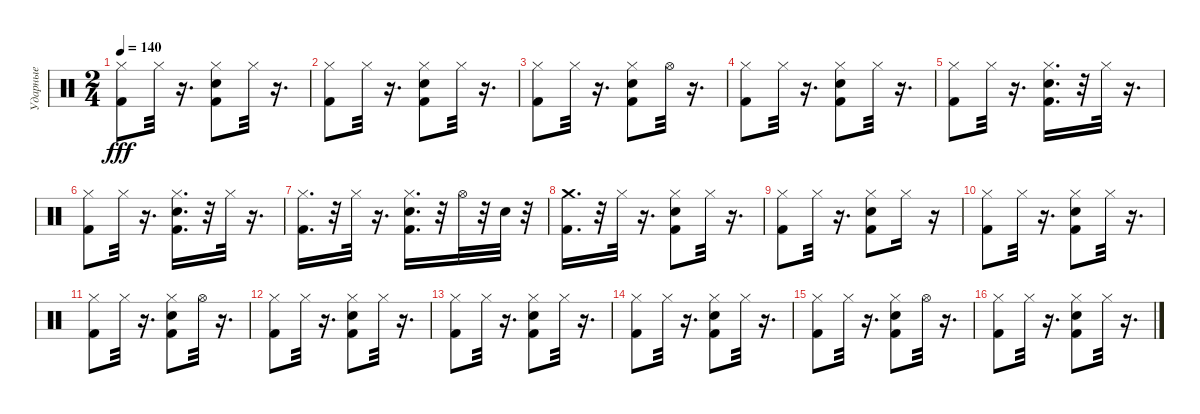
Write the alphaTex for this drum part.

\track ("Ударные" "Ударные") {instrument percussion}
\staff {score}
\articulation defaults
\ts (2 4)
\tempo 140
\clef neutral
\ks c
("Kick (hit) 2" "Hi-Hat (closed)").8{dy fff} "Hi-Hat (closed)".32 r.16{d} ("Snare (hit) 2" "Kick (hit) 2" "Hi-Hat (closed)").8 "Hi-Hat (closed)".32 r.16{d} |
("Kick (hit) 2" "Hi-Hat (closed)").8 "Hi-Hat (closed)".32 r.16{d} ("Snare (hit) 2" "Kick (hit) 2" "Hi-Hat (closed)").8 "Hi-Hat (closed)".32 r.16{d} |
("Kick (hit) 2" "Hi-Hat (closed)").8 "Hi-Hat (closed)".32 r.16{d} ("Snare (hit) 2" "Kick (hit) 2" "Hi-Hat (closed)").8 "Hi-Hat (open)".32 r.16{d} |
("Kick (hit) 2" "Hi-Hat (closed)").8 "Hi-Hat (closed)".32 r.16{d} ("Snare (hit) 2" "Kick (hit) 2" "Hi-Hat (closed)").8 "Hi-Hat (closed)".32 r.16{d} |
("Kick (hit) 2" "Hi-Hat (closed)").8 "Hi-Hat (closed)".32 r.16{d} ("Snare (hit) 2" "Kick (hit) 2" "Hi-Hat (closed)").16{d} r.32 "Hi-Hat (closed)".32 r.16{d} |
("Kick (hit) 2" "Hi-Hat (closed)").8 "Hi-Hat (closed)".32 r.16{d} ("Hi-Hat (closed)" "Snare (hit) 2" "Kick (hit) 2").16{d} r.32 "Hi-Hat (closed)".32 r.16{d} |
("Kick (hit) 2" "Hi-Hat (closed)").16{d} r.32 "Hi-Hat (closed)".32 r.16{d} ("Snare (hit) 2" "Kick (hit) 2" "Hi-Hat (closed)").16{d} r.32 "Hi-Hat (open)".32 r.32 "Snare (hit) 2".32 r.32 |
("Kick (hit) 2" "Crash medium (hit)").16{d} r.32 "Hi-Hat (closed)".32 r.16{d} ("Kick (hit) 2" "Snare (hit) 2" "Hi-Hat (closed)").8 "Hi-Hat (closed)".32 r.16{d} |
("Kick (hit) 2" "Hi-Hat (closed)").8 "Hi-Hat (closed)".32 r.16{d} ("Snare (hit) 2" "Kick (hit) 2" "Hi-Hat (closed)").8 "Hi-Hat (closed)".16 r.16 |
("Kick (hit) 2" "Hi-Hat (closed)").8 "Hi-Hat (closed)".32 r.16{d} ("Snare (hit) 2" "Kick (hit) 2" "Hi-Hat (closed)").8 "Hi-Hat (closed)".32 r.16{d} |
("Kick (hit) 2" "Hi-Hat (closed)").8 "Hi-Hat (closed)".32 r.16{d} ("Kick (hit) 2" "Snare (hit) 2" "Hi-Hat (closed)").8 "Hi-Hat (open)".32 r.16{d} |
("Kick (hit) 2" "Hi-Hat (closed)").8 "Hi-Hat (closed)".32 r.16{d} ("Snare (hit) 2" "Kick (hit) 2" "Hi-Hat (closed)").8 "Hi-Hat (closed)".32 r.16{d} |
("Kick (hit) 2" "Hi-Hat (closed)").8 "Hi-Hat (closed)".32 r.16{d} ("Hi-Hat (closed)" "Snare (hit) 2" "Kick (hit) 2").8 "Hi-Hat (closed)".32 r.16{d} |
("Kick (hit) 2" "Hi-Hat (closed)").8 "Hi-Hat (closed)".32 r.16{d} ("Snare (hit) 2" "Kick (hit) 2" "Hi-Hat (closed)").8 "Hi-Hat (closed)".32 r.16{d} |
("Kick (hit) 2" "Hi-Hat (closed)").8 "Hi-Hat (closed)".32 r.16{d} ("Hi-Hat (closed)" "Kick (hit) 2" "Snare (hit) 2").8 "Hi-Hat (open)".32 r.16{d} |
("Kick (hit) 2" "Hi-Hat (closed)").8 "Hi-Hat (closed)".32 r.16{d} ("Kick (hit) 2" "Hi-Hat (closed)" "Snare (hit) 2").8 "Hi-Hat (closed)".32 r.16{d}
